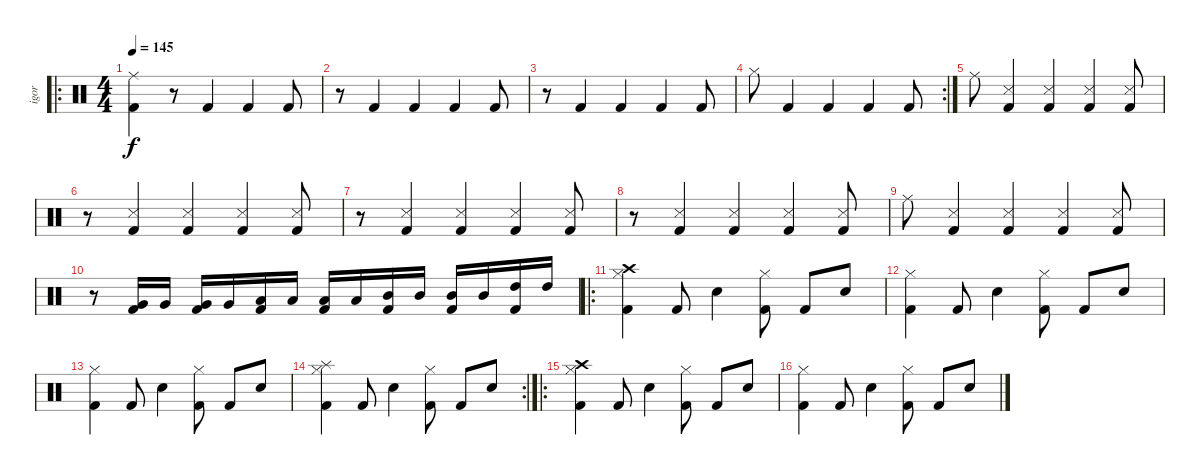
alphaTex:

\track ("igor" "igor") {instrument percussion}
\staff {score}
\articulation defaults
\ro
\ts (4 4)
\tempo 145
\clef neutral
\ks c
("Ride (middle)" "Kick (hit) 2").4{dy f} r.8 "Kick (hit) 2".4 "Kick (hit) 2".4 "Kick (hit) 2".8 |
r.8 "Kick (hit) 2".4 "Kick (hit) 2".4 "Kick (hit) 2".4 "Kick (hit) 2".8 |
r.8 "Kick (hit) 2".4 "Kick (hit) 2".4 "Kick (hit) 2".4 "Kick (hit) 2".8 |
\rc 2 "Hi-Hat (closed)".8 "Kick (hit) 2".4 "Kick (hit) 2".4 "Kick (hit) 2".4 "Kick (hit) 2".8
|
"Ride (middle)".8 ("Snare (side stick) 3" "Kick (hit) 2").4 ("Snare (side stick) 3" "Kick (hit) 2").4 ("Snare (side stick) 3" "Kick (hit) 2").4 ("Snare (side stick) 3" "Kick (hit) 2").8 |
r.8 ("Snare (side stick) 3" "Kick (hit) 2").4 ("Snare (side stick) 3" "Kick (hit) 2").4 ("Snare (side stick) 3" "Kick (hit) 2").4 ("Snare (side stick) 3" "Kick (hit) 2").8 |
r.8 ("Snare (side stick) 3" "Kick (hit) 2").4 ("Snare (side stick) 3" "Kick (hit) 2").4 ("Snare (side stick) 3" "Kick (hit) 2").4 ("Snare (side stick) 3" "Kick (hit) 2").8 |
r.8 ("Snare (side stick) 3" "Kick (hit) 2").4 ("Snare (side stick) 3" "Kick (hit) 2").4 ("Snare (side stick) 3" "Kick (hit) 2").4 ("Snare (side stick) 3" "Kick (hit) 2").8 |
"Ride (middle)".8 ("Snare (side stick) 3" "Kick (hit) 2").4 ("Snare (side stick) 3" "Kick (hit) 2").4 ("Snare (side stick) 3" "Kick (hit) 2").4 ("Snare (side stick) 3" "Kick (hit) 2").8 |
r.8 ("Kick (hit) 2" "Very Low Tom (hit)").16 "Very Low Tom (hit)".16 ("Kick (hit) 2" "Very Low Tom (hit)").16 "Very Low Tom (hit)".16 ("Kick (hit) 2" "Low Tom (hit)").16 "Low Tom (hit)".16 ("Kick (hit) 2" "Low Tom (hit)").16 "Low Tom (hit)".16 ("Kick (hit) 2" "Mid Tom (hit)").16 "Mid Tom (hit)".16 ("Kick (hit) 2" "Mid Tom (hit)").16 "Mid Tom (hit)".16 ("Kick (hit) 2" "High Tom (hit)").16 "High Tom (hit)".16 |
\ro
("Crash high (hit)" "Hi-Hat (closed)" "Kick (hit) 2").4 "Kick (hit) 2".8 "Electric Snare (hit)".4 ("Hi-Hat (closed)" "Kick (hit) 2").8 "Kick (hit) 2".8 "Electric Snare (hit)".8 |
("Hi-Hat (closed)" "Kick (hit) 2").4 "Kick (hit) 2".8 "Electric Snare (hit)".4 ("Hi-Hat (closed)" "Kick (hit) 2").8 "Kick (hit) 2".8 "Electric Snare (hit)".8 |
("Hi-Hat (closed)" "Kick (hit) 2").4 "Kick (hit) 2".8 "Electric Snare (hit)".4 ("Hi-Hat (closed)" "Kick (hit) 2").8 "Kick (hit) 2".8 "Electric Snare (hit)".8 |
\rc 2
("Splash (hit)" "Hi-Hat (closed)" "Kick (hit) 2").4 "Kick (hit) 2".8 "Electric Snare (hit)".4 ("Hi-Hat (closed)" "Kick (hit) 2").8 "Kick (hit) 2".8 "Electric Snare (hit)".8 |
\ro
("Crash high (hit)" "Hi-Hat (closed)" "Kick (hit) 2").4 "Kick (hit) 2".8 "Electric Snare (hit)".4 ("Hi-Hat (closed)" "Kick (hit) 2").8 "Kick (hit) 2".8 "Electric Snare (hit)".8 |
("Hi-Hat (closed)" "Kick (hit) 2").4 "Kick (hit) 2".8 "Electric Snare (hit)".4 ("Hi-Hat (closed)" "Kick (hit) 2").8 "Kick (hit) 2".8 "Electric Snare (hit)".8
